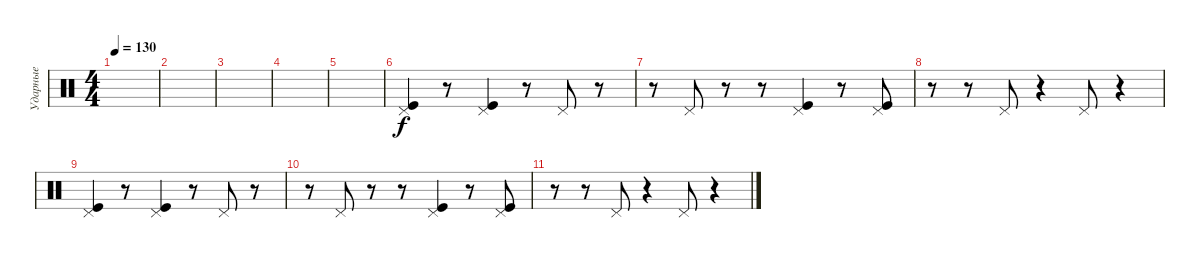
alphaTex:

\track ("Ударные" "Ударные") {instrument percussion}
\staff {score}
\articulation defaults
\ts (4 4)
\tempo 130
\clef neutral
\ks c
|
|
|
|
|
("Pedal Hi-Hat (hit)" "Kick (hit)").4 r.8 ("Pedal Hi-Hat (hit)" "Kick (hit)").4 r.8 "Pedal Hi-Hat (hit)".8 r.8 |
r.8 "Pedal Hi-Hat (hit)".8 r.8 r.8 ("Pedal Hi-Hat (hit)" "Kick (hit)").4 r.8 ("Pedal Hi-Hat (hit)" "Kick (hit)").8 |
r.8 r.8 "Pedal Hi-Hat (hit)".8 r.4 "Pedal Hi-Hat (hit)".8 r.4 |
("Pedal Hi-Hat (hit)" "Kick (hit)").4 r.8 ("Pedal Hi-Hat (hit)" "Kick (hit)").4 r.8 "Pedal Hi-Hat (hit)".8 r.8 |
r.8 "Pedal Hi-Hat (hit)".8 r.8 r.8 ("Pedal Hi-Hat (hit)" "Kick (hit)").4 r.8 ("Pedal Hi-Hat (hit)" "Kick (hit)").8 |
r.8 r.8 "Pedal Hi-Hat (hit)".8 r.4 "Pedal Hi-Hat (hit)".8 r.4
